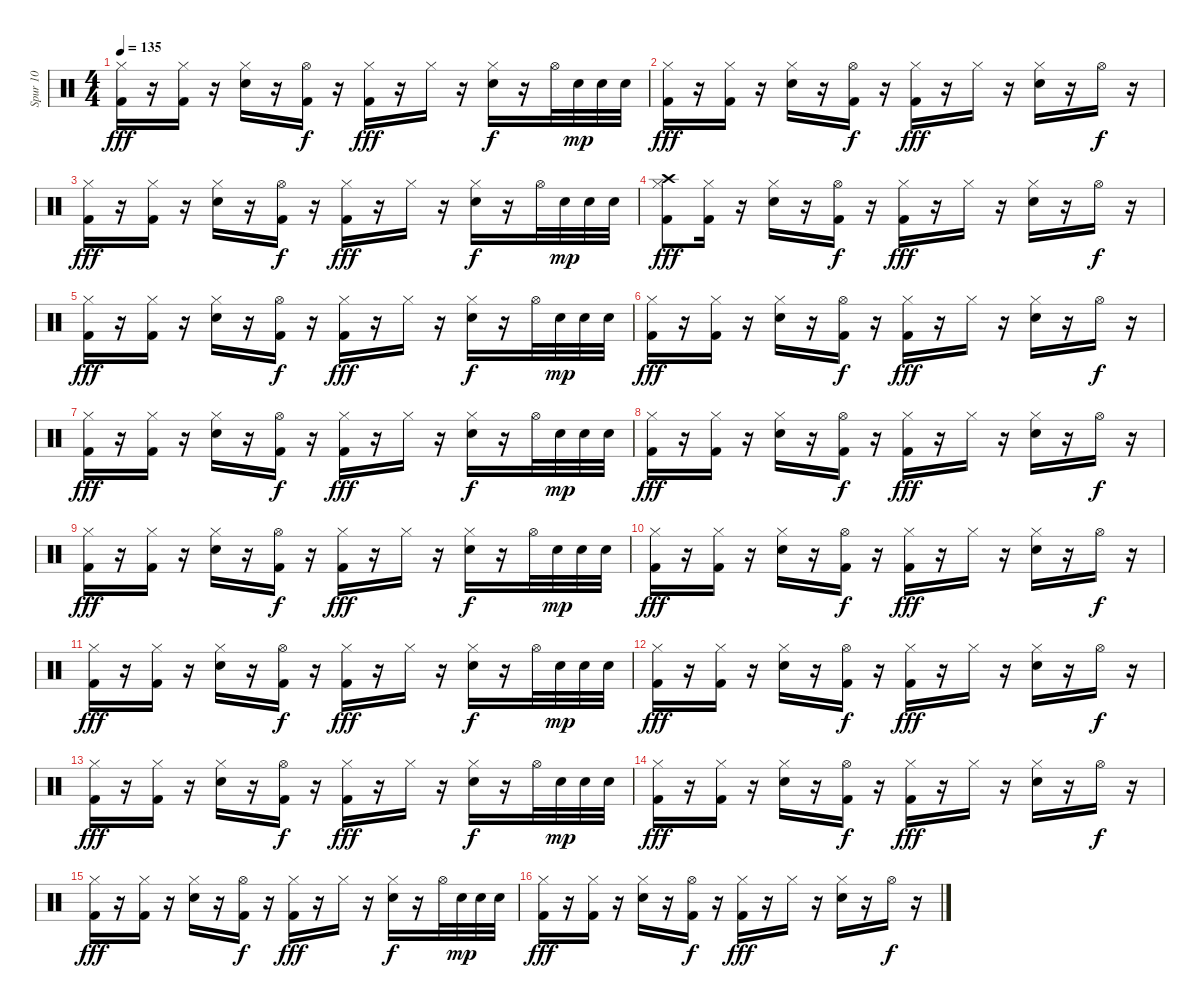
\track ("Spur 10" "Spur 10") {instrument percussion}
\staff {score}
\articulation defaults
\ts (4 4)
\tempo 135
\clef neutral
\ks c
("Hi-Hat (closed)" "Kick (hit) 2").16{dy fff} r.16 ("Hi-Hat (closed)" "Kick (hit) 2").16 r.16 ("Hi-Hat (closed)" "Electric Snare (hit)").16 r.16 ("Hi-Hat (open)" "Kick (hit) 2").16{dy f} r.16 ("Hi-Hat (closed)" "Kick (hit) 2").16{dy fff} r.16 "Hi-Hat (closed)".16 r.16 ("Electric Snare (hit)" "Hi-Hat (closed)").16{dy f} r.16 "Hi-Hat (open)".32 "Snare (hit) 2".32{dy mp} "Snare (hit) 2".32 "Snare (hit) 2".32 |
("Hi-Hat (closed)" "Kick (hit) 2").16{dy fff} r.16 ("Hi-Hat (closed)" "Kick (hit) 2").16 r.16 ("Hi-Hat (closed)" "Electric Snare (hit)").16 r.16 ("Hi-Hat (open)" "Kick (hit) 2").16{dy f} r.16 ("Hi-Hat (closed)" "Kick (hit) 2").16{dy fff} r.16 "Hi-Hat (closed)".16 r.16 ("Hi-Hat (closed)" "Electric Snare (hit)").16 r.16 "Hi-Hat (open)".16{dy f} r.16 |
("Hi-Hat (closed)" "Kick (hit) 2").16{dy fff} r.16 ("Hi-Hat (closed)" "Kick (hit) 2").16 r.16 ("Hi-Hat (closed)" "Electric Snare (hit)").16 r.16 ("Hi-Hat (open)" "Kick (hit) 2").16{dy f} r.16 ("Hi-Hat (closed)" "Kick (hit) 2").16{dy fff} r.16 "Hi-Hat (closed)".16 r.16 ("Electric Snare (hit)" "Hi-Hat (closed)").16{dy f} r.16 "Hi-Hat (open)".32 "Snare (hit) 2".32{dy mp} "Snare (hit) 2".32 "Snare (hit) 2".32 |
("Crash high (hit)" "Hi-Hat (closed)" "Kick (hit) 2").8{dy fff} ("Hi-Hat (closed)" "Kick (hit) 2").16 r.16 ("Hi-Hat (closed)" "Electric Snare (hit)").16 r.16 ("Hi-Hat (open)" "Kick (hit) 2").16{dy f} r.16 ("Hi-Hat (closed)" "Kick (hit) 2").16{dy fff} r.16 "Hi-Hat (closed)".16 r.16 ("Hi-Hat (closed)" "Electric Snare (hit)").16 r.16 "Hi-Hat (open)".16{dy f} r.16 |
("Hi-Hat (closed)" "Kick (hit) 2").16{dy fff} r.16 ("Hi-Hat (closed)" "Kick (hit) 2").16 r.16 ("Hi-Hat (closed)" "Electric Snare (hit)").16 r.16 ("Hi-Hat (open)" "Kick (hit) 2").16{dy f} r.16 ("Hi-Hat (closed)" "Kick (hit) 2").16{dy fff} r.16 "Hi-Hat (closed)".16 r.16 ("Electric Snare (hit)" "Hi-Hat (closed)").16{dy f} r.16 "Hi-Hat (open)".32 "Snare (hit) 2".32{dy mp} "Snare (hit) 2".32 "Snare (hit) 2".32 |
("Hi-Hat (closed)" "Kick (hit) 2").16{dy fff} r.16 ("Hi-Hat (closed)" "Kick (hit) 2").16 r.16 ("Hi-Hat (closed)" "Electric Snare (hit)").16 r.16 ("Hi-Hat (open)" "Kick (hit) 2").16{dy f} r.16 ("Hi-Hat (closed)" "Kick (hit) 2").16{dy fff} r.16 "Hi-Hat (closed)".16 r.16 ("Hi-Hat (closed)" "Electric Snare (hit)").16 r.16 "Hi-Hat (open)".16{dy f} r.16 |
("Hi-Hat (closed)" "Kick (hit) 2").16{dy fff} r.16 ("Hi-Hat (closed)" "Kick (hit) 2").16 r.16 ("Hi-Hat (closed)" "Electric Snare (hit)").16 r.16 ("Hi-Hat (open)" "Kick (hit) 2").16{dy f} r.16 ("Hi-Hat (closed)" "Kick (hit) 2").16{dy fff} r.16 "Hi-Hat (closed)".16 r.16 ("Electric Snare (hit)" "Hi-Hat (closed)").16{dy f} r.16 "Hi-Hat (open)".32 "Snare (hit) 2".32{dy mp} "Snare (hit) 2".32 "Snare (hit) 2".32 |
("Hi-Hat (closed)" "Kick (hit) 2").16{dy fff} r.16 ("Hi-Hat (closed)" "Kick (hit) 2").16 r.16 ("Hi-Hat (closed)" "Electric Snare (hit)").16 r.16 ("Hi-Hat (open)" "Kick (hit) 2").16{dy f} r.16 ("Hi-Hat (closed)" "Kick (hit) 2").16{dy fff} r.16 "Hi-Hat (closed)".16 r.16 ("Hi-Hat (closed)" "Electric Snare (hit)").16 r.16 "Hi-Hat (open)".16{dy f} r.16 |
("Hi-Hat (closed)" "Kick (hit) 2").16{dy fff} r.16 ("Hi-Hat (closed)" "Kick (hit) 2").16 r.16 ("Hi-Hat (closed)" "Electric Snare (hit)").16 r.16 ("Hi-Hat (open)" "Kick (hit) 2").16{dy f} r.16 ("Hi-Hat (closed)" "Kick (hit) 2").16{dy fff} r.16 "Hi-Hat (closed)".16 r.16 ("Electric Snare (hit)" "Hi-Hat (closed)").16{dy f} r.16 "Hi-Hat (open)".32 "Snare (hit) 2".32{dy mp} "Snare (hit) 2".32 "Snare (hit) 2".32 |
("Hi-Hat (closed)" "Kick (hit) 2").16{dy fff} r.16 ("Hi-Hat (closed)" "Kick (hit) 2").16 r.16 ("Hi-Hat (closed)" "Electric Snare (hit)").16 r.16 ("Hi-Hat (open)" "Kick (hit) 2").16{dy f} r.16 ("Hi-Hat (closed)" "Kick (hit) 2").16{dy fff} r.16 "Hi-Hat (closed)".16 r.16 ("Hi-Hat (closed)" "Electric Snare (hit)").16 r.16 "Hi-Hat (open)".16{dy f} r.16 |
("Hi-Hat (closed)" "Kick (hit) 2").16{dy fff} r.16 ("Hi-Hat (closed)" "Kick (hit) 2").16 r.16 ("Hi-Hat (closed)" "Electric Snare (hit)").16 r.16 ("Hi-Hat (open)" "Kick (hit) 2").16{dy f} r.16 ("Hi-Hat (closed)" "Kick (hit) 2").16{dy fff} r.16 "Hi-Hat (closed)".16 r.16 ("Electric Snare (hit)" "Hi-Hat (closed)").16{dy f} r.16 "Hi-Hat (open)".32 "Snare (hit) 2".32{dy mp} "Snare (hit) 2".32 "Snare (hit) 2".32 |
("Hi-Hat (closed)" "Kick (hit) 2").16{dy fff} r.16 ("Hi-Hat (closed)" "Kick (hit) 2").16 r.16 ("Hi-Hat (closed)" "Electric Snare (hit)").16 r.16 ("Hi-Hat (open)" "Kick (hit) 2").16{dy f} r.16 ("Hi-Hat (closed)" "Kick (hit) 2").16{dy fff} r.16 "Hi-Hat (closed)".16 r.16 ("Hi-Hat (closed)" "Electric Snare (hit)").16 r.16 "Hi-Hat (open)".16{dy f} r.16 |
("Hi-Hat (closed)" "Kick (hit) 2").16{dy fff} r.16 ("Hi-Hat (closed)" "Kick (hit) 2").16 r.16 ("Hi-Hat (closed)" "Electric Snare (hit)").16 r.16 ("Hi-Hat (open)" "Kick (hit) 2").16{dy f} r.16 ("Hi-Hat (closed)" "Kick (hit) 2").16{dy fff} r.16 "Hi-Hat (closed)".16 r.16 ("Electric Snare (hit)" "Hi-Hat (closed)").16{dy f} r.16 "Hi-Hat (open)".32 "Snare (hit) 2".32{dy mp} "Snare (hit) 2".32 "Snare (hit) 2".32 |
("Hi-Hat (closed)" "Kick (hit) 2").16{dy fff} r.16 ("Hi-Hat (closed)" "Kick (hit) 2").16 r.16 ("Hi-Hat (closed)" "Electric Snare (hit)").16 r.16 ("Hi-Hat (open)" "Kick (hit) 2").16{dy f} r.16 ("Hi-Hat (closed)" "Kick (hit) 2").16{dy fff} r.16 "Hi-Hat (closed)".16 r.16 ("Hi-Hat (closed)" "Electric Snare (hit)").16 r.16 "Hi-Hat (open)".16{dy f} r.16 |
("Hi-Hat (closed)" "Kick (hit) 2").16{dy fff} r.16 ("Hi-Hat (closed)" "Kick (hit) 2").16 r.16 ("Hi-Hat (closed)" "Electric Snare (hit)").16 r.16 ("Hi-Hat (open)" "Kick (hit) 2").16{dy f} r.16 ("Hi-Hat (closed)" "Kick (hit) 2").16{dy fff} r.16 "Hi-Hat (closed)".16 r.16 ("Electric Snare (hit)" "Hi-Hat (closed)").16{dy f} r.16 "Hi-Hat (open)".32 "Snare (hit) 2".32{dy mp} "Snare (hit) 2".32 "Snare (hit) 2".32 |
("Hi-Hat (closed)" "Kick (hit) 2").16{dy fff} r.16 ("Hi-Hat (closed)" "Kick (hit) 2").16 r.16 ("Hi-Hat (closed)" "Electric Snare (hit)").16 r.16 ("Hi-Hat (open)" "Kick (hit) 2").16{dy f} r.16 ("Hi-Hat (closed)" "Kick (hit) 2").16{dy fff} r.16 "Hi-Hat (closed)".16 r.16 ("Hi-Hat (closed)" "Electric Snare (hit)").16 r.16 "Hi-Hat (open)".16{dy f} r.16
